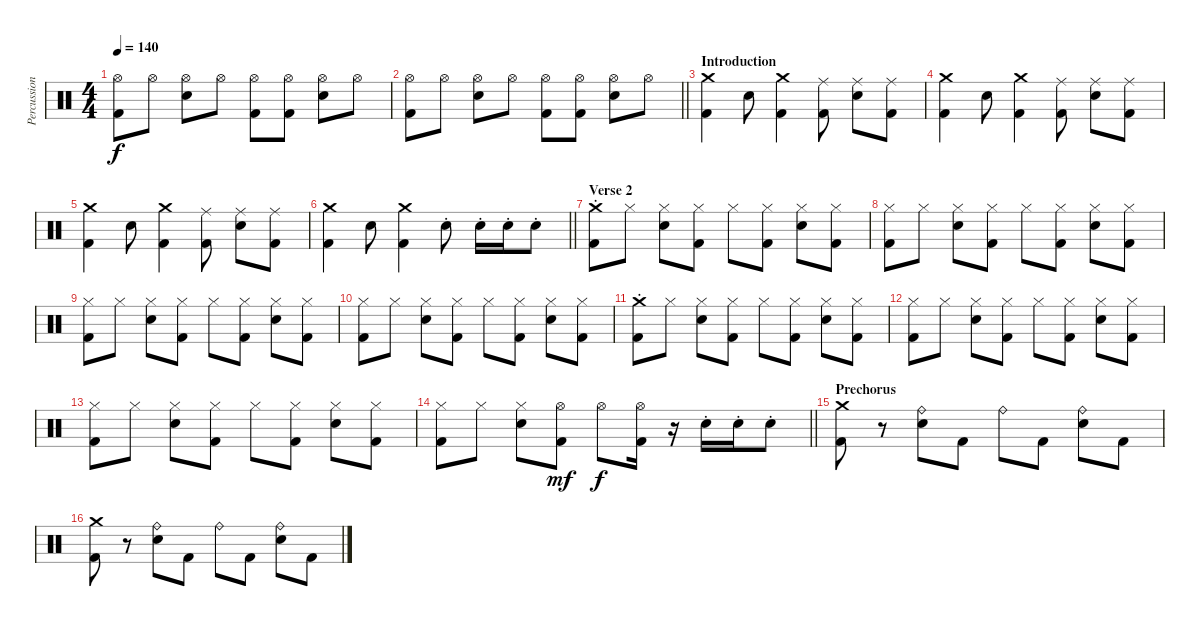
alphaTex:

\track ("Percussion" "Percussion") {instrument percussion}
\staff {score}
\articulation defaults
\ts (4 4)
\tempo 140
\clef neutral
\ks c
("Hi-Hat (open)" "Kick (hit) 2").8{dy f} "Hi-Hat (open)".8 ("Hi-Hat (open)" "Snare (hit) 2").8 "Hi-Hat (open)".8 ("Hi-Hat (open)" "Kick (hit) 2").8 ("Hi-Hat (open)" "Kick (hit) 2").8 ("Hi-Hat (open)" "Snare (hit) 2").8 "Hi-Hat (open)".8 |
\barLineRight lightlight
("Hi-Hat (open)" "Kick (hit) 2").8 "Hi-Hat (open)".8 ("Hi-Hat (open)" "Snare (hit) 2").8 "Hi-Hat (open)".8 ("Hi-Hat (open)" "Kick (hit) 2").8 ("Hi-Hat (open)" "Kick (hit) 2").8 ("Hi-Hat (open)" "Snare (hit) 2").8 "Hi-Hat (open)".8 |
\section ("" "Introduction")
("Crash medium (hit)" "Kick (hit) 2").4 "Snare (hit) 2".8 ("Crash medium (hit)" "Kick (hit) 2").4 ("Ride (middle)" "Kick (hit) 2").8 ("Ride (middle)" "Snare (hit) 2").8 ("Ride (middle)" "Kick (hit) 2").8 |
("Crash medium (hit)" "Kick (hit) 2").4 "Snare (hit) 2".8 ("Crash medium (hit)" "Kick (hit) 2").4 ("Ride (middle)" "Kick (hit) 2").8 ("Ride (middle)" "Snare (hit) 2").8 ("Ride (middle)" "Kick (hit) 2").8 |
("Crash medium (hit)" "Kick (hit) 2").4 "Snare (hit) 2".8 ("Crash medium (hit)" "Kick (hit) 2").4 ("Ride (middle)" "Kick (hit) 2").8 ("Ride (middle)" "Snare (hit) 2").8 ("Ride (middle)" "Kick (hit) 2").8 |
\barLineRight lightlight
("Crash medium (hit)" "Kick (hit) 2").4 "Snare (hit) 2".8 ("Crash medium (hit)" "Kick (hit) 2").4 "Snare (hit) 2"{st}.8 "Snare (hit) 2"{st}.16 "Snare (hit) 2"{st}.16 "Snare (hit) 2"{st}.8 |
\section ("" "Verse 2")
("Crash medium (hit)"{st} "Kick (hit) 2").8 "Hi-Hat (closed)".8 ("Hi-Hat (closed)" "Snare (hit) 2").8 ("Hi-Hat (closed)" "Kick (hit) 2").8 "Hi-Hat (closed)".8 ("Hi-Hat (closed)" "Kick (hit) 2").8 ("Hi-Hat (closed)" "Snare (hit) 2").8 ("Hi-Hat (closed)" "Kick (hit) 2").8 |
("Hi-Hat (closed)" "Kick (hit) 2").8 "Hi-Hat (closed)".8 ("Hi-Hat (closed)" "Snare (hit) 2").8 ("Hi-Hat (closed)" "Kick (hit) 2").8 "Hi-Hat (closed)".8 ("Hi-Hat (closed)" "Kick (hit) 2").8 ("Hi-Hat (closed)" "Snare (hit) 2").8 ("Hi-Hat (closed)" "Kick (hit) 2").8 |
("Hi-Hat (closed)" "Kick (hit) 2").8 "Hi-Hat (closed)".8 ("Hi-Hat (closed)" "Snare (hit) 2").8 ("Hi-Hat (closed)" "Kick (hit) 2").8 "Hi-Hat (closed)".8 ("Hi-Hat (closed)" "Kick (hit) 2").8 ("Hi-Hat (closed)" "Snare (hit) 2").8 ("Hi-Hat (closed)" "Kick (hit) 2").8 |
("Hi-Hat (closed)" "Kick (hit) 2").8 "Hi-Hat (closed)".8 ("Hi-Hat (closed)" "Snare (hit) 2").8 ("Hi-Hat (closed)" "Kick (hit) 2").8 "Hi-Hat (closed)".8 ("Hi-Hat (closed)" "Kick (hit) 2").8 ("Hi-Hat (closed)" "Snare (hit) 2").8 ("Hi-Hat (closed)" "Kick (hit) 2").8 |
("Crash medium (hit)"{st} "Kick (hit) 2").8 "Hi-Hat (closed)".8 ("Hi-Hat (closed)" "Snare (hit) 2").8 ("Hi-Hat (closed)" "Kick (hit) 2").8 "Hi-Hat (closed)".8 ("Hi-Hat (closed)" "Kick (hit) 2").8 ("Hi-Hat (closed)" "Snare (hit) 2").8 ("Hi-Hat (closed)" "Kick (hit) 2").8 |
("Hi-Hat (closed)" "Kick (hit) 2").8 "Hi-Hat (closed)".8 ("Hi-Hat (closed)" "Snare (hit) 2").8 ("Hi-Hat (closed)" "Kick (hit) 2").8 "Hi-Hat (closed)".8 ("Hi-Hat (closed)" "Kick (hit) 2").8 ("Hi-Hat (closed)" "Snare (hit) 2").8 ("Hi-Hat (closed)" "Kick (hit) 2").8 |
("Hi-Hat (closed)" "Kick (hit) 2").8 "Hi-Hat (closed)".8 ("Hi-Hat (closed)" "Snare (hit) 2").8 ("Hi-Hat (closed)" "Kick (hit) 2").8 "Hi-Hat (closed)".8 ("Hi-Hat (closed)" "Kick (hit) 2").8 ("Hi-Hat (closed)" "Snare (hit) 2").8 ("Hi-Hat (closed)" "Kick (hit) 2").8 |
\barLineRight lightlight
("Hi-Hat (closed)" "Kick (hit) 2").8 "Hi-Hat (closed)".8 ("Hi-Hat (closed)" "Snare (hit) 2").8 ("Hi-Hat (open)" "Kick (hit) 2").8{dy mf} "Hi-Hat (open)".8{dy f} ("Hi-Hat (open)" "Kick (hit) 2").16 r.16 "Snare (hit) 2"{st}.16 "Snare (hit) 2"{st}.16 "Snare (hit) 2"{st}.8 |
\section ("" "Prechorus")
("Crash medium (hit)" "Kick (hit) 2").8 r.8 ("Ride (bell)" "Snare (hit) 2").8 "Kick (hit) 2".8 "Ride (bell)".8 "Kick (hit) 2".8 ("Ride (bell)" "Snare (hit) 2").8 "Kick (hit) 2".8 |
("Crash medium (hit)" "Kick (hit) 2").8 r.8 ("Ride (bell)" "Snare (hit) 2").8 "Kick (hit) 2".8 "Ride (bell)".8 "Kick (hit) 2".8 ("Ride (bell)" "Snare (hit) 2").8 "Kick (hit) 2".8
